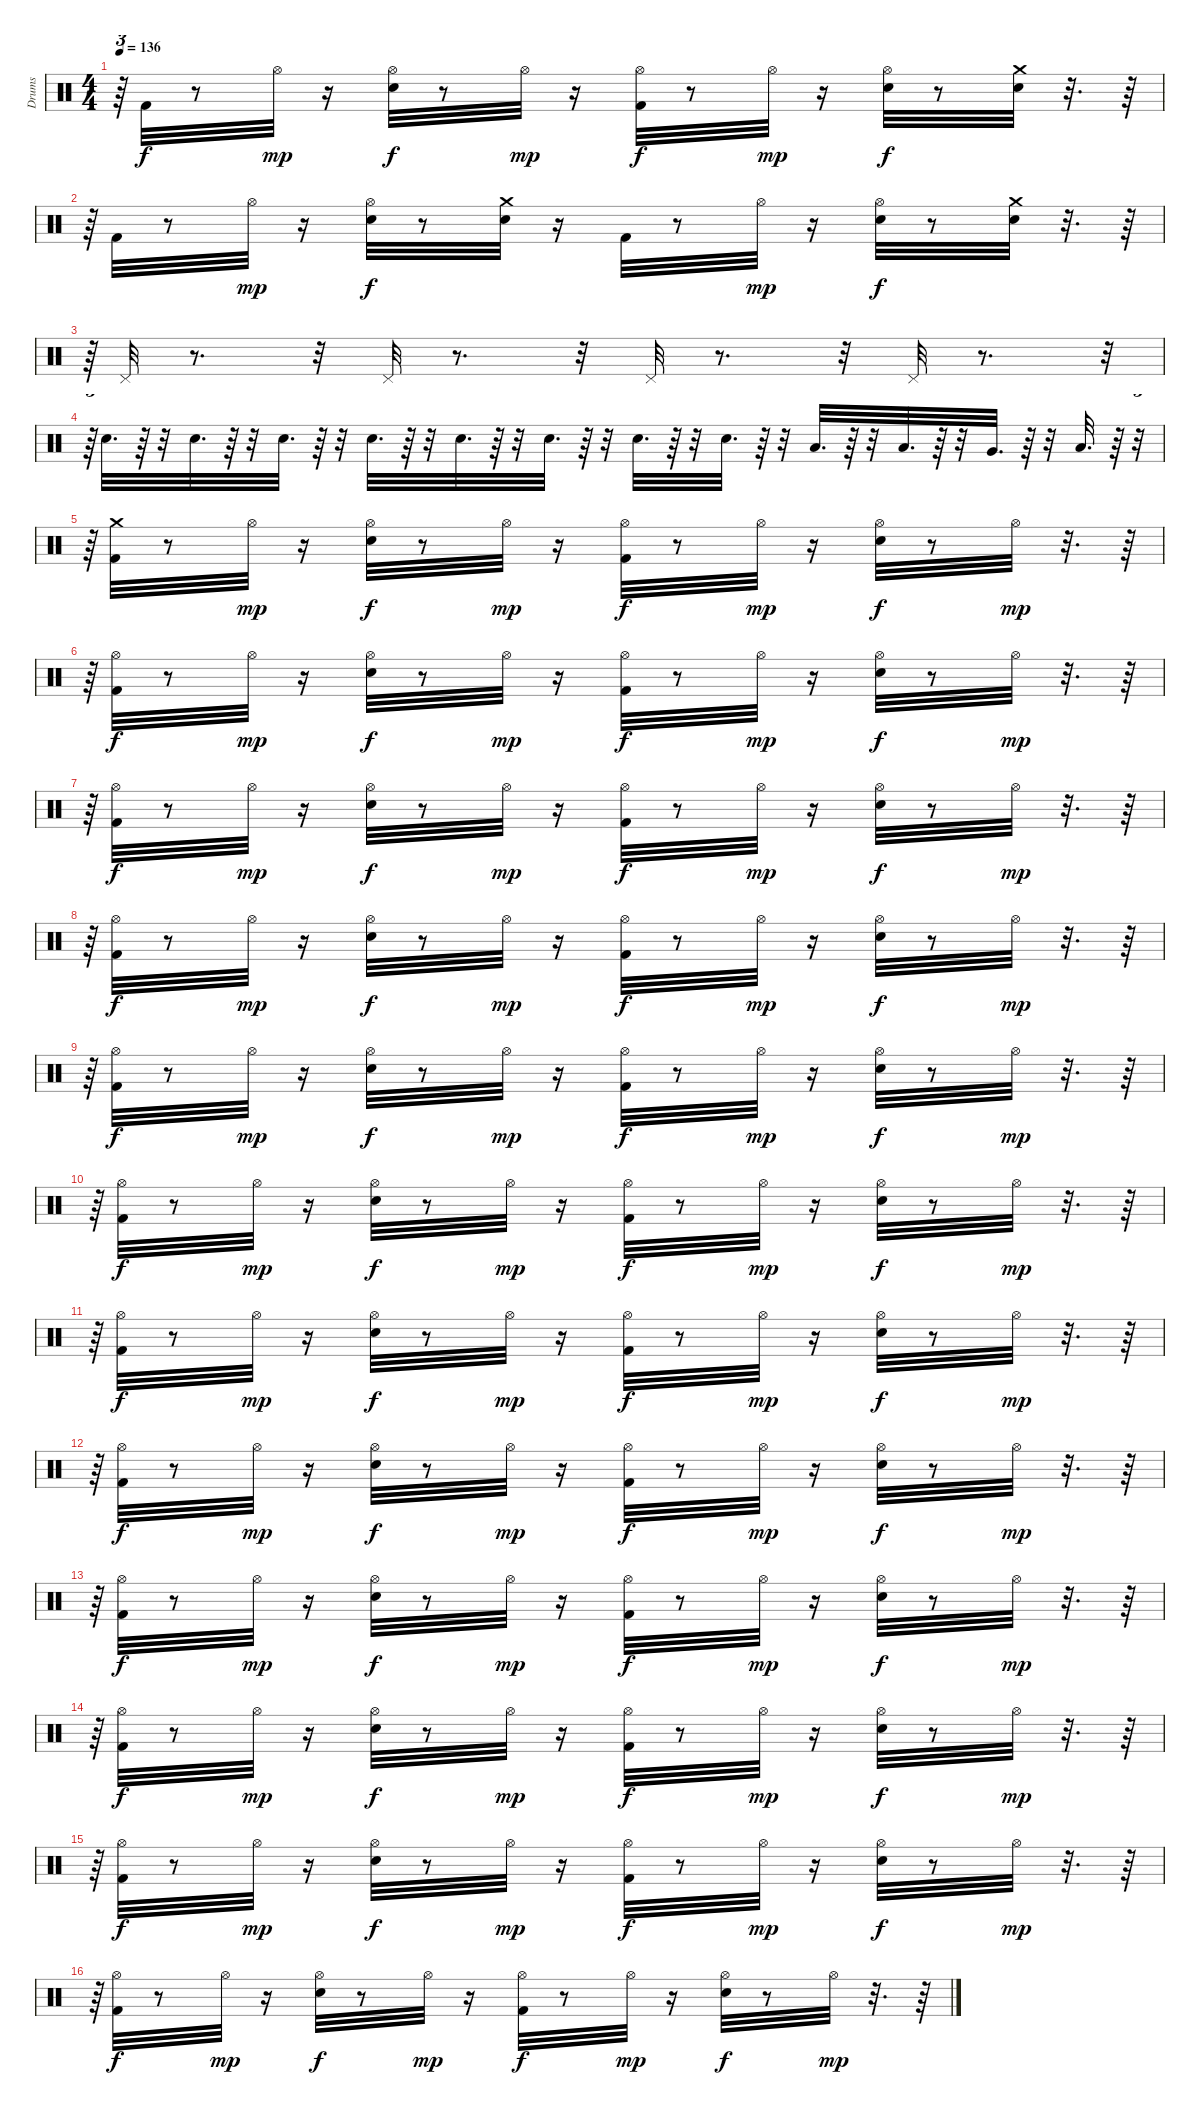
\track ("Drums" "Drums") {instrument percussion}
\staff {score}
\articulation defaults
\ts (4 4)
\tempo 136
\clef neutral
\ks c
r.64{tu (3 2) dy f} "Kick (hit) 2".32 r.8 "Hi-Hat (open)".32{dy mp} r.16 ("Hi-Hat (open)" "Electric Snare (hit)").32{dy f} r.8 "Hi-Hat (open)".32{dy mp} r.16 ("Hi-Hat (open)" "Kick (hit) 2").32{dy f} r.8 "Hi-Hat (open)".32{dy mp} r.16 ("Hi-Hat (open)" "Electric Snare (hit)").32{dy f} r.8 ("Crash medium (hit)" "Electric Snare (hit)").32 r.32{d} r.64 |
r.64{tu (3 2)} "Kick (hit) 2".32 r.8 "Hi-Hat (open)".32{dy mp} r.16 ("Hi-Hat (open)" "Electric Snare (hit)").32{dy f} r.8 ("Crash medium (hit)" "Electric Snare (hit)").32 r.16 "Kick (hit) 2".32 r.8 "Hi-Hat (open)".32{dy mp} r.16 ("Hi-Hat (open)" "Electric Snare (hit)").32{dy f} r.8 ("Crash medium (hit)" "Electric Snare (hit)").32 r.32{d} r.64 |
r.64{tu (3 2)} "Pedal Hi-Hat (hit)".32 r.8{d} r.32 "Pedal Hi-Hat (hit)".32 r.8{d} r.32 "Pedal Hi-Hat (hit)".32 r.8{d} r.32 "Pedal Hi-Hat (hit)".32 r.8{d} r.32{tu (3 2)} |
r.64{tu (3 2)} "Electric Snare (hit)".32{d} r.64 r.32 "Electric Snare (hit)".32{d} r.64 r.32 "Electric Snare (hit)".32{d} r.64 r.32 "Electric Snare (hit)".32{d} r.64 r.32 "Electric Snare (hit)".32{d} r.64 r.32 "Electric Snare (hit)".32{d} r.64 r.32 "Electric Snare (hit)".32{d} r.64 r.32 "Electric Snare (hit)".32{d} r.64 r.32 "Low Tom (hit)".32{d} r.64 r.32 "Low Tom (hit)".32{d} r.64 r.32 "Very Low Tom (hit)".32{d} r.64 r.32 "Low Floor Tom (hit)".32{d} r.64 r.32{tu (3 2)} |
r.64{tu (3 2)} ("Crash medium (hit)" "Kick (hit) 2").32 r.8 "Hi-Hat (open)".32{dy mp} r.16 ("Hi-Hat (open)" "Electric Snare (hit)").32{dy f} r.8 "Hi-Hat (open)".32{dy mp} r.16 ("Hi-Hat (open)" "Kick (hit) 2").32{dy f} r.8 "Hi-Hat (open)".32{dy mp} r.16 ("Hi-Hat (open)" "Electric Snare (hit)").32{dy f} r.8 "Hi-Hat (open)".32{dy mp} r.32{d} r.64 |
r.64{tu (3 2)} ("Hi-Hat (open)" "Kick (hit) 2").32{dy f} r.8 "Hi-Hat (open)".32{dy mp} r.16 ("Hi-Hat (open)" "Electric Snare (hit)").32{dy f} r.8 "Hi-Hat (open)".32{dy mp} r.16 ("Hi-Hat (open)" "Kick (hit) 2").32{dy f} r.8 "Hi-Hat (open)".32{dy mp} r.16 ("Hi-Hat (open)" "Electric Snare (hit)").32{dy f} r.8 "Hi-Hat (open)".32{dy mp} r.32{d} r.64 |
r.64{tu (3 2)} ("Hi-Hat (open)" "Kick (hit) 2").32{dy f} r.8 "Hi-Hat (open)".32{dy mp} r.16 ("Hi-Hat (open)" "Electric Snare (hit)").32{dy f} r.8 "Hi-Hat (open)".32{dy mp} r.16 ("Hi-Hat (open)" "Kick (hit) 2").32{dy f} r.8 "Hi-Hat (open)".32{dy mp} r.16 ("Hi-Hat (open)" "Electric Snare (hit)").32{dy f} r.8 "Hi-Hat (open)".32{dy mp} r.32{d} r.64 |
r.64{tu (3 2)} ("Hi-Hat (open)" "Kick (hit) 2").32{dy f} r.8 "Hi-Hat (open)".32{dy mp} r.16 ("Hi-Hat (open)" "Electric Snare (hit)").32{dy f} r.8 "Hi-Hat (open)".32{dy mp} r.16 ("Hi-Hat (open)" "Kick (hit) 2").32{dy f} r.8 "Hi-Hat (open)".32{dy mp} r.16 ("Hi-Hat (open)" "Electric Snare (hit)").32{dy f} r.8 "Hi-Hat (open)".32{dy mp} r.32{d} r.64 |
r.64{tu (3 2)} ("Hi-Hat (open)" "Kick (hit) 2").32{dy f} r.8 "Hi-Hat (open)".32{dy mp} r.16 ("Hi-Hat (open)" "Electric Snare (hit)").32{dy f} r.8 "Hi-Hat (open)".32{dy mp} r.16 ("Hi-Hat (open)" "Kick (hit) 2").32{dy f} r.8 "Hi-Hat (open)".32{dy mp} r.16 ("Hi-Hat (open)" "Electric Snare (hit)").32{dy f} r.8 "Hi-Hat (open)".32{dy mp} r.32{d} r.64 |
r.64{tu (3 2)} ("Hi-Hat (open)" "Kick (hit) 2").32{dy f} r.8 "Hi-Hat (open)".32{dy mp} r.16 ("Hi-Hat (open)" "Electric Snare (hit)").32{dy f} r.8 "Hi-Hat (open)".32{dy mp} r.16 ("Hi-Hat (open)" "Kick (hit) 2").32{dy f} r.8 "Hi-Hat (open)".32{dy mp} r.16 ("Hi-Hat (open)" "Electric Snare (hit)").32{dy f} r.8 "Hi-Hat (open)".32{dy mp} r.32{d} r.64 |
r.64{tu (3 2)} ("Hi-Hat (open)" "Kick (hit) 2").32{dy f} r.8 "Hi-Hat (open)".32{dy mp} r.16 ("Hi-Hat (open)" "Electric Snare (hit)").32{dy f} r.8 "Hi-Hat (open)".32{dy mp} r.16 ("Hi-Hat (open)" "Kick (hit) 2").32{dy f} r.8 "Hi-Hat (open)".32{dy mp} r.16 ("Hi-Hat (open)" "Electric Snare (hit)").32{dy f} r.8 "Hi-Hat (open)".32{dy mp} r.32{d} r.64 |
r.64{tu (3 2)} ("Hi-Hat (open)" "Kick (hit) 2").32{dy f} r.8 "Hi-Hat (open)".32{dy mp} r.16 ("Hi-Hat (open)" "Electric Snare (hit)").32{dy f} r.8 "Hi-Hat (open)".32{dy mp} r.16 ("Hi-Hat (open)" "Kick (hit) 2").32{dy f} r.8 "Hi-Hat (open)".32{dy mp} r.16 ("Hi-Hat (open)" "Electric Snare (hit)").32{dy f} r.8 "Hi-Hat (open)".32{dy mp} r.32{d} r.64 |
r.64{tu (3 2)} ("Hi-Hat (open)" "Kick (hit) 2").32{dy f} r.8 "Hi-Hat (open)".32{dy mp} r.16 ("Hi-Hat (open)" "Electric Snare (hit)").32{dy f} r.8 "Hi-Hat (open)".32{dy mp} r.16 ("Hi-Hat (open)" "Kick (hit) 2").32{dy f} r.8 "Hi-Hat (open)".32{dy mp} r.16 ("Hi-Hat (open)" "Electric Snare (hit)").32{dy f} r.8 "Hi-Hat (open)".32{dy mp} r.32{d} r.64 |
r.64{tu (3 2)} ("Hi-Hat (open)" "Kick (hit) 2").32{dy f} r.8 "Hi-Hat (open)".32{dy mp} r.16 ("Hi-Hat (open)" "Electric Snare (hit)").32{dy f} r.8 "Hi-Hat (open)".32{dy mp} r.16 ("Hi-Hat (open)" "Kick (hit) 2").32{dy f} r.8 "Hi-Hat (open)".32{dy mp} r.16 ("Hi-Hat (open)" "Electric Snare (hit)").32{dy f} r.8 "Hi-Hat (open)".32{dy mp} r.32{d} r.64 |
r.64{tu (3 2)} ("Hi-Hat (open)" "Kick (hit) 2").32{dy f} r.8 "Hi-Hat (open)".32{dy mp} r.16 ("Hi-Hat (open)" "Electric Snare (hit)").32{dy f} r.8 "Hi-Hat (open)".32{dy mp} r.16 ("Hi-Hat (open)" "Kick (hit) 2").32{dy f} r.8 "Hi-Hat (open)".32{dy mp} r.16 ("Hi-Hat (open)" "Electric Snare (hit)").32{dy f} r.8 "Hi-Hat (open)".32{dy mp} r.32{d} r.64 |
r.64{tu (3 2)} ("Hi-Hat (open)" "Kick (hit) 2").32{dy f} r.8 "Hi-Hat (open)".32{dy mp} r.16 ("Hi-Hat (open)" "Electric Snare (hit)").32{dy f} r.8 "Hi-Hat (open)".32{dy mp} r.16 ("Hi-Hat (open)" "Kick (hit) 2").32{dy f} r.8 "Hi-Hat (open)".32{dy mp} r.16 ("Hi-Hat (open)" "Electric Snare (hit)").32{dy f} r.8 "Hi-Hat (open)".32{dy mp} r.32{d} r.64
